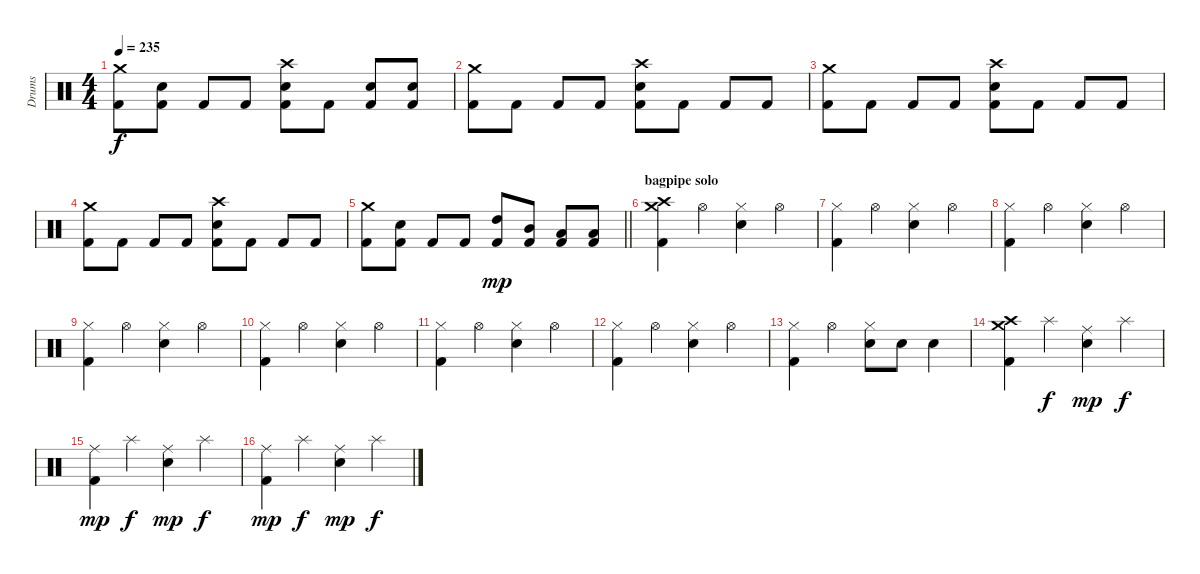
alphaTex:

\track ("Drums" "Drums") {instrument percussion}
\staff {score}
\articulation defaults
\ts (4 4)
\tempo 235
\clef neutral
\ks c
("Crash medium (hit)" "Kick (hit) 2").8{dy f} ("Snare (hit) 2" "Kick (hit) 2").8 "Kick (hit) 2".8 "Kick (hit) 2".8 ("Crash high (hit)" "Snare (hit) 2" "Kick (hit) 2").8 "Kick (hit) 2".8 ("Snare (hit) 2" "Kick (hit) 2").8 ("Snare (hit) 2" "Kick (hit) 2").8 |
("Crash medium (hit)" "Kick (hit) 2").8 "Kick (hit) 2".8 "Kick (hit) 2".8 "Kick (hit) 2".8 ("Crash high (hit)" "Snare (hit) 2" "Kick (hit) 2").8 "Kick (hit) 2".8 "Kick (hit) 2".8 "Kick (hit) 2".8 |
("Crash medium (hit)" "Kick (hit) 2").8 "Kick (hit) 2".8 "Kick (hit) 2".8 "Kick (hit) 2".8 ("Crash high (hit)" "Snare (hit) 2" "Kick (hit) 2").8 "Kick (hit) 2".8 "Kick (hit) 2".8 "Kick (hit) 2".8 |
("Crash medium (hit)" "Kick (hit) 2").8 "Kick (hit) 2".8 "Kick (hit) 2".8 "Kick (hit) 2".8 ("Crash high (hit)" "Snare (hit) 2" "Kick (hit) 2").8 "Kick (hit) 2".8 "Kick (hit) 2".8 "Kick (hit) 2".8 |
\barLineRight lightlight
("Crash medium (hit)" "Kick (hit) 2").8 ("Snare (hit) 2" "Kick (hit) 2").8 "Kick (hit) 2".8 "Kick (hit) 2".8 ("High Tom (hit)" "Kick (hit) 2").8{dy mp} ("Mid Tom (hit)" "Kick (hit) 2").8 ("Low Tom (hit)" "Kick (hit) 2").8 ("Low Tom (hit)" "Kick (hit) 2").8 |
\section ("" "bagpipe solo")
("Crash high (hit)" "Crash medium (hit)" "Kick (hit) 2").4 "Hi-Hat (open)".4 ("Hi-Hat (closed)" "Snare (hit) 2").4 "Hi-Hat (open)".4 |
("Hi-Hat (closed)" "Kick (hit) 2").4 "Hi-Hat (open)".4 ("Hi-Hat (closed)" "Snare (hit) 2").4 "Hi-Hat (open)".4 |
("Hi-Hat (closed)" "Kick (hit) 2").4 "Hi-Hat (open)".4 ("Hi-Hat (closed)" "Snare (hit) 2").4 "Hi-Hat (open)".4 |
("Hi-Hat (closed)" "Kick (hit) 2").4 "Hi-Hat (open)".4 ("Hi-Hat (closed)" "Snare (hit) 2").4 "Hi-Hat (open)".4 |
("Hi-Hat (closed)" "Kick (hit) 2").4 "Hi-Hat (open)".4 ("Hi-Hat (closed)" "Snare (hit) 2").4 "Hi-Hat (open)".4 |
("Hi-Hat (closed)" "Kick (hit) 2").4 "Hi-Hat (open)".4 ("Hi-Hat (closed)" "Snare (hit) 2").4 "Hi-Hat (open)".4 |
("Hi-Hat (closed)" "Kick (hit) 2").4 "Hi-Hat (open)".4 ("Hi-Hat (closed)" "Snare (hit) 2").4 "Hi-Hat (open)".4 |
("Hi-Hat (closed)" "Kick (hit) 2").4 "Hi-Hat (open)".4 ("Hi-Hat (closed)" "Snare (hit) 2").8 "Snare (hit) 2".8 "Snare (hit) 2".4 |
("Crash high (hit)" "Crash medium (hit)" "Kick (hit) 2").4 "Splash (hit)".4{dy f} ("Ride (middle)" "Snare (hit) 2").4{dy mp} "Splash (hit)".4{dy f} |
("Ride (middle)" "Kick (hit) 2").4{dy mp} "Splash (hit)".4{dy f} ("Ride (middle)" "Snare (hit) 2").4{dy mp} "Splash (hit)".4{dy f} |
("Ride (middle)" "Kick (hit) 2").4{dy mp} "Splash (hit)".4{dy f} ("Ride (middle)" "Snare (hit) 2").4{dy mp} "Splash (hit)".4{dy f}
